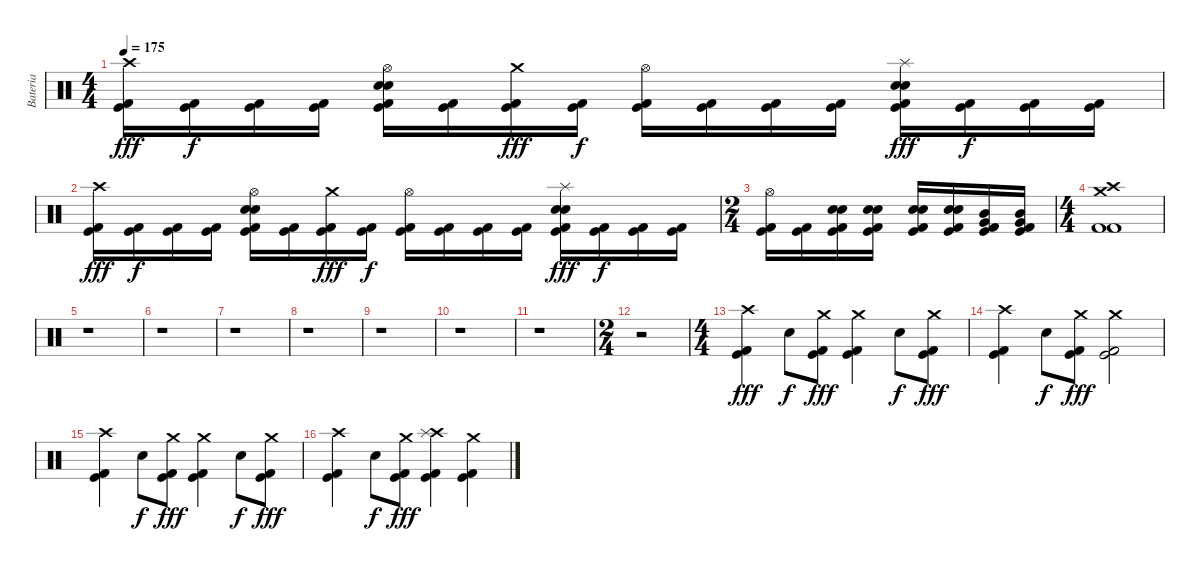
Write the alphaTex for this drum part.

\track ("Bateria" "Bateria") {instrument percussion}
\staff {score}
\articulation defaults
\ts (4 4)
\tempo 175
\clef neutral
\ks c
("Crash high (hit)" "Kick (hit) 2" "Kick (hit)").16{dy fff} ("Kick (hit) 2" "Kick (hit)").16{dy f} ("Kick (hit) 2" "Kick (hit)").16 ("Kick (hit) 2" "Kick (hit)").16 ("Hi-Hat (open)" "Electric Snare (hit)" "Snare (hit) 2" "Kick (hit) 2" "Kick (hit)").16 ("Kick (hit) 2" "Kick (hit)").16 ("Crash medium (hit)" "Kick (hit) 2" "Kick (hit)").16{dy fff} ("Kick (hit) 2" "Kick (hit)").16{dy f} ("Hi-Hat (open)" "Kick (hit) 2" "Kick (hit)").16 ("Kick (hit) 2" "Kick (hit)").16 ("Kick (hit) 2" "Kick (hit)").16 ("Kick (hit) 2" "Kick (hit)").16 ("Splash (hit)" "Electric Snare (hit)" "Snare (hit) 2" "Kick (hit) 2" "Kick (hit)").16{dy fff} ("Kick (hit) 2" "Kick (hit)").16{dy f} ("Kick (hit) 2" "Kick (hit)").16 ("Kick (hit) 2" "Kick (hit)").16 |
("Crash high (hit)" "Kick (hit) 2" "Kick (hit)").16{dy fff} ("Kick (hit) 2" "Kick (hit)").16{dy f} ("Kick (hit) 2" "Kick (hit)").16 ("Kick (hit) 2" "Kick (hit)").16 ("Hi-Hat (open)" "Electric Snare (hit)" "Snare (hit) 2" "Kick (hit) 2" "Kick (hit)").16 ("Kick (hit) 2" "Kick (hit)").16 ("Crash medium (hit)" "Kick (hit) 2" "Kick (hit)").16{dy fff} ("Kick (hit) 2" "Kick (hit)").16{dy f} ("Hi-Hat (open)" "Kick (hit) 2" "Kick (hit)").16 ("Kick (hit) 2" "Kick (hit)").16 ("Kick (hit) 2" "Kick (hit)").16 ("Kick (hit) 2" "Kick (hit)").16 ("Splash (hit)" "Electric Snare (hit)" "Snare (hit) 2" "Kick (hit) 2" "Kick (hit)").16{dy fff} ("Kick (hit) 2" "Kick (hit)").16{dy f} ("Kick (hit) 2" "Kick (hit)").16 ("Kick (hit) 2" "Kick (hit)").16 |
\ts (2 4)
("Hi-Hat (open)" "Kick (hit) 2" "Kick (hit)").16 ("Kick (hit) 2" "Kick (hit)").16 ("Electric Snare (hit)" "Snare (hit) 2" "Kick (hit) 2" "Kick (hit)").16 ("Electric Snare (hit)" "Snare (hit) 2" "Kick (hit) 2" "Kick (hit)").16 ("Electric Snare (hit)" "Snare (hit) 2" "Kick (hit) 2" "Kick (hit)").16 ("Electric Snare (hit)" "Snare (hit) 2" "Kick (hit) 2" "Kick (hit)").16 ("Mid Tom (hit)" "Very Low Tom (hit)" "Kick (hit) 2" "Kick (hit)").16 ("Mid Tom (hit)" "Very Low Tom (hit)" "Kick (hit) 2" "Kick (hit)").16 |
\ts (4 4)
("Crash high (hit)" "Crash medium (hit)" "Kick (hit) 2" "Kick (hit) 2").1 |
r.1 |
r.1 |
r.1 |
r.1 |
r.1 |
r.1 |
r.1 |
\ts (2 4)
r.2 |
\ts (4 4)
("Crash high (hit)" "Kick (hit) 2" "Kick (hit)").4{dy fff} "Snare (hit)"{x}.8{dy f} ("Crash medium (hit)" "Kick (hit) 2" "Kick (hit)").8{dy fff} ("Crash medium (hit)" "Kick (hit) 2" "Kick (hit)").4 "Snare (hit)"{x}.8{dy f} ("Crash medium (hit)" "Kick (hit) 2" "Kick (hit)").8{dy fff} |
("Crash high (hit)" "Kick (hit) 2" "Kick (hit)").4 "Snare (hit)"{x}.8{dy f} ("Crash medium (hit)" "Kick (hit) 2" "Kick (hit)").8{dy fff} ("Crash medium (hit)" "Kick (hit) 2" "Kick (hit)").2 |
("Crash high (hit)" "Kick (hit) 2" "Kick (hit)").4 "Snare (hit)"{x}.8{dy f} ("Crash medium (hit)" "Kick (hit) 2" "Kick (hit)").8{dy fff} ("Crash medium (hit)" "Kick (hit) 2" "Kick (hit)").4 "Snare (hit)"{x}.8{dy f} ("Crash medium (hit)" "Kick (hit) 2" "Kick (hit)").8{dy fff} |
("Crash high (hit)" "Kick (hit) 2" "Kick (hit)").4 "Snare (hit)"{x}.8{dy f} ("Crash medium (hit)" "Kick (hit) 2" "Kick (hit)").8{dy fff} ("Crash high (hit)" "Splash (hit)" "Kick (hit) 2" "Kick (hit)").4 ("Crash medium (hit)" "Kick (hit) 2" "Kick (hit)").4
